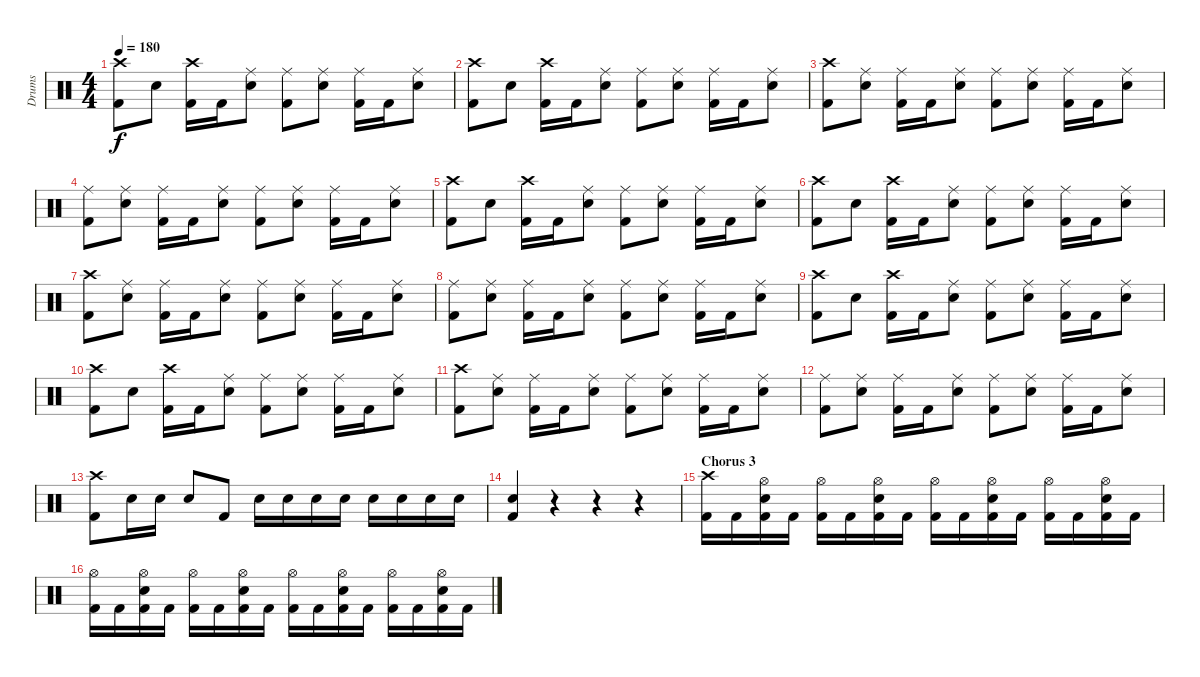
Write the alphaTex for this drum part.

\track ("Drums" "Drums") {instrument percussion}
\staff {score}
\articulation defaults
\ts (4 4)
\tempo 180
\clef neutral
\ks c
("Crash high (hit)" "Kick (hit) 2").8{dy f} "Snare (hit) 2".8 ("Crash high (hit)" "Kick (hit) 2").16 "Kick (hit) 2".16 ("Ride (middle)" "Snare (hit) 2").8 ("Ride (middle)" "Kick (hit) 2").8 ("Ride (middle)" "Snare (hit) 2").8 ("Ride (middle)" "Kick (hit) 2").16 "Kick (hit) 2".16 ("Ride (middle)" "Snare (hit) 2").8 |
("Crash high (hit)" "Kick (hit) 2").8 "Snare (hit) 2".8 ("Crash high (hit)" "Kick (hit) 2").16 "Kick (hit) 2".16 ("Ride (middle)" "Snare (hit) 2").8 ("Ride (middle)" "Kick (hit) 2").8 ("Ride (middle)" "Snare (hit) 2").8 ("Ride (middle)" "Kick (hit) 2").16 "Kick (hit) 2".16 ("Ride (middle)" "Snare (hit) 2").8 |
("Crash high (hit)" "Kick (hit) 2").8 ("Ride (middle)" "Snare (hit) 2").8 ("Ride (middle)" "Kick (hit) 2").16 "Kick (hit) 2".16 ("Ride (middle)" "Snare (hit) 2").8 ("Ride (middle)" "Kick (hit) 2").8 ("Ride (middle)" "Snare (hit) 2").8 ("Ride (middle)" "Kick (hit) 2").16 "Kick (hit) 2".16 ("Ride (middle)" "Snare (hit) 2").8 |
("Ride (middle)" "Kick (hit) 2").8 ("Ride (middle)" "Snare (hit) 2").8 ("Ride (middle)" "Kick (hit) 2").16 "Kick (hit) 2".16 ("Ride (middle)" "Snare (hit) 2").8 ("Ride (middle)" "Kick (hit) 2").8 ("Ride (middle)" "Snare (hit) 2").8 ("Ride (middle)" "Kick (hit) 2").16 "Kick (hit) 2".16 ("Ride (middle)" "Snare (hit) 2").8 |
("Crash high (hit)" "Kick (hit) 2").8 "Snare (hit) 2".8 ("Crash high (hit)" "Kick (hit) 2").16 "Kick (hit) 2".16 ("Ride (middle)" "Snare (hit) 2").8 ("Ride (middle)" "Kick (hit) 2").8 ("Ride (middle)" "Snare (hit) 2").8 ("Ride (middle)" "Kick (hit) 2").16 "Kick (hit) 2".16 ("Ride (middle)" "Snare (hit) 2").8 |
("Crash high (hit)" "Kick (hit) 2").8 "Snare (hit) 2".8 ("Crash high (hit)" "Kick (hit) 2").16 "Kick (hit) 2".16 ("Ride (middle)" "Snare (hit) 2").8 ("Ride (middle)" "Kick (hit) 2").8 ("Ride (middle)" "Snare (hit) 2").8 ("Ride (middle)" "Kick (hit) 2").16 "Kick (hit) 2".16 ("Ride (middle)" "Snare (hit) 2").8 |
("Crash high (hit)" "Kick (hit) 2").8 ("Ride (middle)" "Snare (hit) 2").8 ("Ride (middle)" "Kick (hit) 2").16 "Kick (hit) 2".16 ("Ride (middle)" "Snare (hit) 2").8 ("Ride (middle)" "Kick (hit) 2").8 ("Ride (middle)" "Snare (hit) 2").8 ("Ride (middle)" "Kick (hit) 2").16 "Kick (hit) 2".16 ("Ride (middle)" "Snare (hit) 2").8 |
("Ride (middle)" "Kick (hit) 2").8 ("Ride (middle)" "Snare (hit) 2").8 ("Ride (middle)" "Kick (hit) 2").16 "Kick (hit) 2".16 ("Ride (middle)" "Snare (hit) 2").8 ("Ride (middle)" "Kick (hit) 2").8 ("Ride (middle)" "Snare (hit) 2").8 ("Ride (middle)" "Kick (hit) 2").16 "Kick (hit) 2".16 ("Ride (middle)" "Snare (hit) 2").8 |
("Crash high (hit)" "Kick (hit) 2").8 "Snare (hit) 2".8 ("Crash high (hit)" "Kick (hit) 2").16 "Kick (hit) 2".16 ("Ride (middle)" "Snare (hit) 2").8 ("Ride (middle)" "Kick (hit) 2").8 ("Ride (middle)" "Snare (hit) 2").8 ("Ride (middle)" "Kick (hit) 2").16 "Kick (hit) 2".16 ("Ride (middle)" "Snare (hit) 2").8 |
("Crash high (hit)" "Kick (hit) 2").8 "Snare (hit) 2".8 ("Crash high (hit)" "Kick (hit) 2").16 "Kick (hit) 2".16 ("Ride (middle)" "Snare (hit) 2").8 ("Ride (middle)" "Kick (hit) 2").8 ("Ride (middle)" "Snare (hit) 2").8 ("Ride (middle)" "Kick (hit) 2").16 "Kick (hit) 2".16 ("Ride (middle)" "Snare (hit) 2").8 |
("Crash high (hit)" "Kick (hit) 2").8 ("Ride (middle)" "Snare (hit) 2").8 ("Ride (middle)" "Kick (hit) 2").16 "Kick (hit) 2".16 ("Ride (middle)" "Snare (hit) 2").8 ("Ride (middle)" "Kick (hit) 2").8 ("Ride (middle)" "Snare (hit) 2").8 ("Ride (middle)" "Kick (hit) 2").16 "Kick (hit) 2".16 ("Ride (middle)" "Snare (hit) 2").8 |
("Ride (middle)" "Kick (hit) 2").8 ("Ride (middle)" "Snare (hit) 2").8 ("Ride (middle)" "Kick (hit) 2").16 "Kick (hit) 2".16 ("Ride (middle)" "Snare (hit) 2").8 ("Ride (middle)" "Kick (hit) 2").8 ("Ride (middle)" "Snare (hit) 2").8 ("Ride (middle)" "Kick (hit) 2").16 "Kick (hit) 2".16 ("Ride (middle)" "Snare (hit) 2").8 |
("Crash high (hit)" "Kick (hit) 2").8 "Snare (hit) 2".16 "Snare (hit) 2".16 "Snare (hit) 2".8 "Kick (hit) 2".8 "Snare (hit) 2".16 "Snare (hit) 2".16 "Snare (hit) 2".16 "Snare (hit) 2".16 "Snare (hit) 2".16 "Snare (hit) 2".16 "Snare (hit) 2".16 "Snare (hit) 2".16 |
("Snare (hit) 2" "Kick (hit) 2").4 r.4 r.4 r.4 |
\section ("" "Chorus 3")
("Crash high (hit)" "Kick (hit) 2").16 "Kick (hit) 2".16 ("Hi-Hat (open)" "Snare (hit) 2" "Kick (hit) 2").16 "Kick (hit) 2".16 ("Hi-Hat (open)" "Kick (hit) 2").16 "Kick (hit) 2".16 ("Hi-Hat (open)" "Snare (hit) 2" "Kick (hit) 2").16 "Kick (hit) 2".16 ("Hi-Hat (open)" "Kick (hit) 2").16 "Kick (hit) 2".16 ("Hi-Hat (open)" "Snare (hit) 2" "Kick (hit) 2").16 "Kick (hit) 2".16 ("Hi-Hat (open)" "Kick (hit) 2").16 "Kick (hit) 2".16 ("Hi-Hat (open)" "Snare (hit) 2" "Kick (hit) 2").16 "Kick (hit) 2".16 |
("Hi-Hat (open)" "Kick (hit) 2").16 "Kick (hit) 2".16 ("Hi-Hat (open)" "Snare (hit) 2" "Kick (hit) 2").16 "Kick (hit) 2".16 ("Hi-Hat (open)" "Kick (hit) 2").16 "Kick (hit) 2".16 ("Hi-Hat (open)" "Snare (hit) 2" "Kick (hit) 2").16 "Kick (hit) 2".16 ("Hi-Hat (open)" "Kick (hit) 2").16 "Kick (hit) 2".16 ("Hi-Hat (open)" "Snare (hit) 2" "Kick (hit) 2").16 "Kick (hit) 2".16 ("Hi-Hat (open)" "Kick (hit) 2").16 "Kick (hit) 2".16 ("Hi-Hat (open)" "Snare (hit) 2" "Kick (hit) 2").16 "Kick (hit) 2".16
